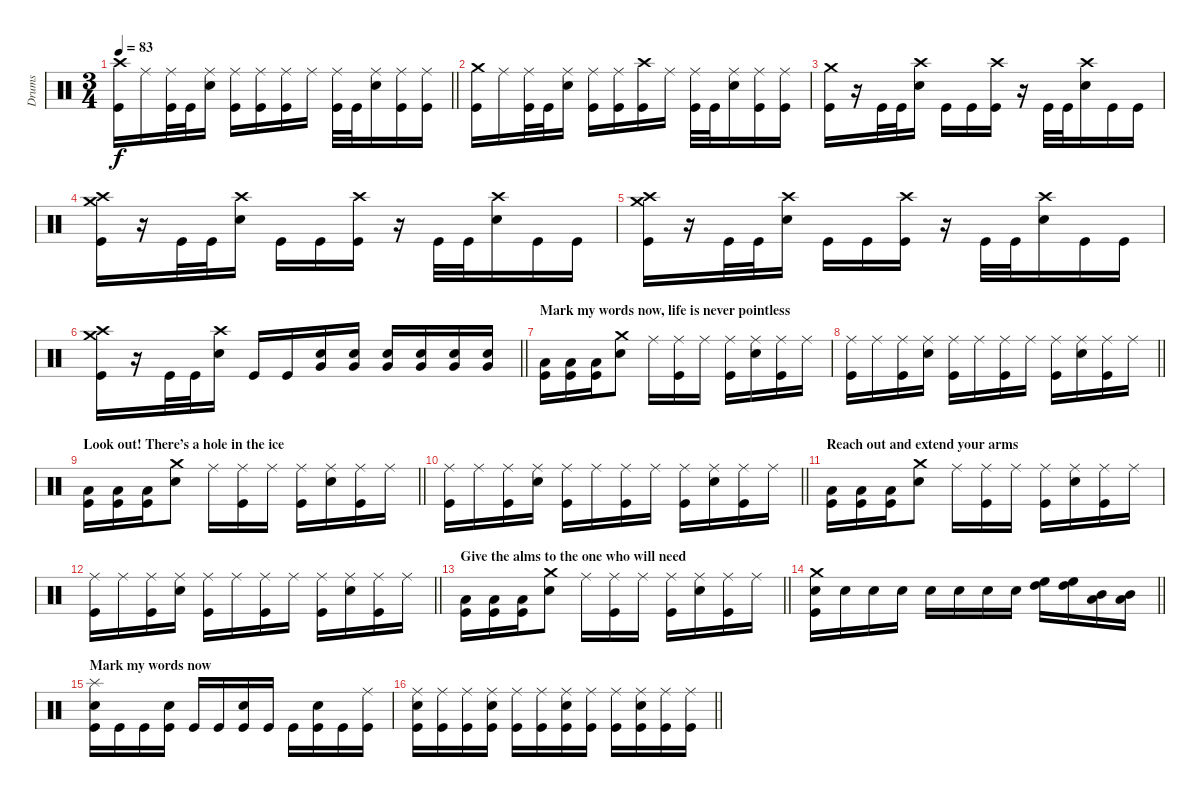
\track ("Drums" "Drums") {instrument percussion}
\staff {score}
\articulation defaults
\ts (3 4)
\tempo 83
\clef neutral
\barLineRight lightlight
\ks c
("Crash high (hit)" "Kick (hit)").16{dy f} "Ride (middle)".16 ("Ride (middle)" "Kick (hit)").32 "Kick (hit)".32 ("Ride (middle)" "Snare (hit) 2").16 ("Ride (middle)" "Kick (hit)").16 ("Ride (middle)" "Kick (hit)").16 ("Ride (middle)" "Kick (hit)").16 "Ride (middle)".16 ("Ride (middle)" "Kick (hit)").32 "Kick (hit)".32 ("Ride (middle)" "Snare (hit) 2").16 ("Ride (middle)" "Kick (hit)").16 ("Ride (middle)" "Kick (hit)").16 |
("Crash medium (hit)" "Kick (hit)").16 "Ride (middle)".16 ("Ride (middle)" "Kick (hit)").32 "Kick (hit)".32 ("Ride (middle)" "Snare (hit) 2").16 ("Ride (middle)" "Kick (hit)").16 ("Ride (middle)" "Kick (hit)").16 ("Crash high (hit)" "Kick (hit)").16 "Ride (middle)".16 ("Ride (middle)" "Kick (hit)").32 "Kick (hit)".32 ("Ride (middle)" "Snare (hit) 2").16 ("Ride (middle)" "Kick (hit)").16 ("Ride (middle)" "Kick (hit)").16 |
("Crash medium (hit)" "Kick (hit)").16 r.16 "Kick (hit)".32 "Kick (hit)".32 ("Crash high (hit)" "Snare (hit) 2").16 "Kick (hit)".16 "Kick (hit)".16 ("Crash high (hit)" "Kick (hit)").16 r.16 "Kick (hit)".32 "Kick (hit)".32 ("Crash high (hit)" "Snare (hit) 2").16 "Kick (hit)".16 "Kick (hit)".16 |
("Crash medium (hit)" "Crash high (hit)" "Kick (hit)").16 r.16 "Kick (hit)".32 "Kick (hit)".32 ("Crash high (hit)" "Snare (hit) 2").16 "Kick (hit)".16 "Kick (hit)".16 ("Crash high (hit)" "Kick (hit)").16 r.16 "Kick (hit)".32 "Kick (hit)".32 ("Crash high (hit)" "Snare (hit) 2").16 "Kick (hit)".16 "Kick (hit)".16 |
("Crash medium (hit)" "Crash high (hit)" "Kick (hit)").16 r.16 "Kick (hit)".32 "Kick (hit)".32 ("Crash high (hit)" "Snare (hit) 2").16 "Kick (hit)".16 "Kick (hit)".16 ("Crash high (hit)" "Kick (hit)").16 r.16 "Kick (hit)".32 "Kick (hit)".32 ("Crash high (hit)" "Snare (hit) 2").16 "Kick (hit)".16 "Kick (hit)".16 |
\barLineRight lightlight
("Crash medium (hit)" "Crash high (hit)" "Kick (hit)").16 r.16 "Kick (hit)".32 "Kick (hit)".32 ("Crash high (hit)" "Snare (hit) 2").16 "Kick (hit)".16 "Kick (hit)".16 ("Snare (hit) 2" "Very Low Tom (hit)").16 ("Snare (hit) 2" "Very Low Tom (hit)").16 ("Snare (hit) 2" "Very Low Tom (hit)").16 ("Snare (hit) 2" "Very Low Tom (hit)").16 ("Snare (hit) 2" "Very Low Tom (hit)").16 ("Snare (hit) 2" "Very Low Tom (hit)").16 |
\section ("" "Mark my words now, life is never pointless")
("Low Tom (hit)" "Kick (hit)").16 ("Low Tom (hit)" "Kick (hit)").16 ("Low Tom (hit)" "Kick (hit)").16 ("Crash medium (hit)" "Snare (hit) 2").8 "Ride (middle)".16 ("Ride (middle)" "Kick (hit)").16 "Ride (middle)".16 ("Ride (middle)" "Kick (hit)").16 ("Ride (middle)" "Snare (hit) 2").16 ("Ride (middle)" "Kick (hit)").16 "Ride (middle)".16 |
\barLineRight lightlight
("Ride (middle)" "Kick (hit)").16 "Ride (middle)".16 ("Ride (middle)" "Kick (hit)").16 ("Ride (middle)" "Snare (hit) 2").16 ("Ride (middle)" "Kick (hit)").16 "Ride (middle)".16 ("Ride (middle)" "Kick (hit)").16 "Ride (middle)".16 ("Ride (middle)" "Kick (hit)").16 ("Ride (middle)" "Snare (hit) 2").16 ("Ride (middle)" "Kick (hit)").16 "Ride (middle)".16 |
\section ("" "Look out! There’s a hole in the ice")
\barLineRight lightlight
("Low Tom (hit)" "Kick (hit)").16 ("Low Tom (hit)" "Kick (hit)").16 ("Low Tom (hit)" "Kick (hit)").16 ("Crash medium (hit)" "Snare (hit) 2").8 "Ride (middle)".16 ("Ride (middle)" "Kick (hit)").16 "Ride (middle)".16 ("Ride (middle)" "Kick (hit)").16 ("Ride (middle)" "Snare (hit) 2").16 ("Ride (middle)" "Kick (hit)").16 "Ride (middle)".16 |
\barLineRight lightlight
("Ride (middle)" "Kick (hit)").16 "Ride (middle)".16 ("Ride (middle)" "Kick (hit)").16 ("Ride (middle)" "Snare (hit) 2").16 ("Ride (middle)" "Kick (hit)").16 "Ride (middle)".16 ("Ride (middle)" "Kick (hit)").16 "Ride (middle)".16 ("Ride (middle)" "Kick (hit)").16 ("Ride (middle)" "Snare (hit) 2").16 ("Ride (middle)" "Kick (hit)").16 "Ride (middle)".16 |
\section ("" "Reach out and extend your arms")
("Low Tom (hit)" "Kick (hit)").16 ("Low Tom (hit)" "Kick (hit)").16 ("Low Tom (hit)" "Kick (hit)").16 ("Crash medium (hit)" "Snare (hit) 2").8 "Ride (middle)".16 ("Ride (middle)" "Kick (hit)").16 "Ride (middle)".16 ("Ride (middle)" "Kick (hit)").16 ("Ride (middle)" "Snare (hit) 2").16 ("Ride (middle)" "Kick (hit)").16 "Ride (middle)".16 |
\barLineRight lightlight
("Ride (middle)" "Kick (hit)").16 "Ride (middle)".16 ("Ride (middle)" "Kick (hit)").16 ("Ride (middle)" "Snare (hit) 2").16 ("Ride (middle)" "Kick (hit)").16 "Ride (middle)".16 ("Ride (middle)" "Kick (hit)").16 "Ride (middle)".16 ("Ride (middle)" "Kick (hit)").16 ("Ride (middle)" "Snare (hit) 2").16 ("Ride (middle)" "Kick (hit)").16 "Ride (middle)".16 |
\section ("" "Give the alms to the one who will need")
\barLineRight lightlight
("Low Tom (hit)" "Kick (hit)").16 ("Low Tom (hit)" "Kick (hit)").16 ("Low Tom (hit)" "Kick (hit)").16 ("Crash medium (hit)" "Snare (hit) 2").8 "Ride (middle)".16 ("Ride (middle)" "Kick (hit)").16 "Ride (middle)".16 ("Ride (middle)" "Kick (hit)").16 ("Ride (middle)" "Snare (hit) 2").16 ("Ride (middle)" "Kick (hit)").16 "Ride (middle)".16 |
\barLineRight lightlight
("Crash medium (hit)" "Snare (hit) 2" "Kick (hit)").16 "Snare (hit) 2".16 "Snare (hit) 2".16 "Snare (hit) 2".16 "Snare (hit) 2".16 "Snare (hit) 2".16 "Snare (hit) 2".16 "Snare (hit) 2".16 ("High Floor Tom (hit)" "High Tom (hit)").16 ("High Floor Tom (hit)" "High Tom (hit)").16 ("Mid Tom (hit)" "Low Tom (hit)").16 ("Mid Tom (hit)" "Low Tom (hit)").16 |
\section ("" "Mark my words now")
("Splash (hit)" "Snare (hit) 2" "Kick (hit)").16 "Kick (hit)".16 "Kick (hit)".16 ("Snare (hit) 2" "Kick (hit)").16 "Kick (hit)".16 "Kick (hit)".16 ("Snare (hit) 2" "Kick (hit)").16 "Kick (hit)".16 "Kick (hit)".16 ("Snare (hit) 2" "Kick (hit)").16 "Kick (hit)".16 ("Ride (middle)" "Kick (hit)").16 |
\barLineRight lightlight
("Ride (middle)" "Snare (hit) 2" "Kick (hit)").16 ("Ride (middle)" "Kick (hit)").16 ("Ride (middle)" "Kick (hit)").16 ("Ride (middle)" "Snare (hit) 2" "Kick (hit)").16 ("Ride (middle)" "Kick (hit)").16 ("Ride (middle)" "Kick (hit)").16 ("Ride (middle)" "Snare (hit) 2" "Kick (hit)").16 ("Ride (middle)" "Kick (hit)").16 ("Ride (middle)" "Kick (hit)").16 ("Ride (middle)" "Snare (hit) 2" "Kick (hit)").16 ("Ride (middle)" "Kick (hit)").16 ("Ride (middle)" "Kick (hit)").16
